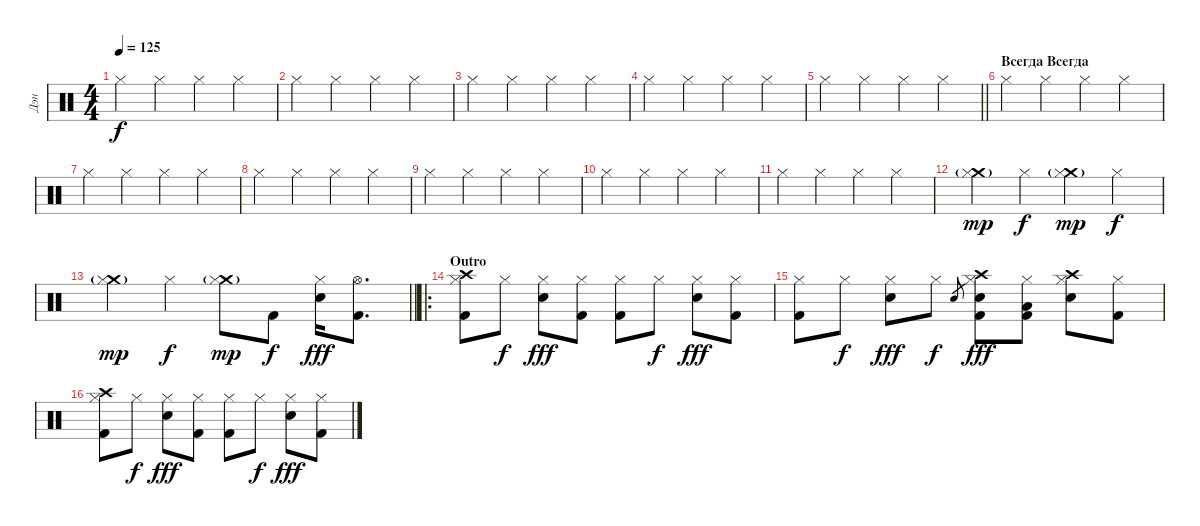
\track ("Дэн" "Дэн") {instrument percussion}
\staff {score}
\articulation defaults
\ts (4 4)
\tempo 125
\clef neutral
\ks c "Hi-Hat (closed)".4{dy f} "Hi-Hat (closed)".4 "Hi-Hat (closed)".4 "Hi-Hat (closed)".4
|
"Hi-Hat (closed)".4 "Hi-Hat (closed)".4 "Hi-Hat (closed)".4 "Hi-Hat (closed)".4 |
"Hi-Hat (closed)".4 "Hi-Hat (closed)".4 "Hi-Hat (closed)".4 "Hi-Hat (closed)".4 |
"Hi-Hat (closed)".4 "Hi-Hat (closed)".4 "Hi-Hat (closed)".4 "Hi-Hat (closed)".4 |
\barLineRight lightlight "Hi-Hat (closed)".4 "Hi-Hat (closed)".4 "Hi-Hat (closed)".4 "Hi-Hat (closed)".4
|
\section ("" "Всегда Всегда")
"Hi-Hat (closed)".4 "Hi-Hat (closed)".4 "Hi-Hat (closed)".4 "Hi-Hat (closed)".4 |
"Hi-Hat (closed)".4 "Hi-Hat (closed)".4 "Hi-Hat (closed)".4 "Hi-Hat (closed)".4 |
"Hi-Hat (closed)".4 "Hi-Hat (closed)".4 "Hi-Hat (closed)".4 "Hi-Hat (closed)".4 |
"Hi-Hat (closed)".4 "Hi-Hat (closed)".4 "Hi-Hat (closed)".4 "Hi-Hat (closed)".4 |
"Hi-Hat (closed)".4 "Hi-Hat (closed)".4 "Hi-Hat (closed)".4 "Hi-Hat (closed)".4 |
"Hi-Hat (closed)".4 "Hi-Hat (closed)".4 "Hi-Hat (closed)".4 "Hi-Hat (closed)".4 |
("Crash medium (hit)"{g} "Hi-Hat (closed)").4{dy mp} "Hi-Hat (closed)".4{dy f} ("Crash medium (hit)"{g} "Hi-Hat (closed)").4{dy mp} "Hi-Hat (closed)".4{dy f} |
\barLineRight lightlight
("Crash medium (hit)"{g} "Hi-Hat (closed)").4{dy mp} "Hi-Hat (closed)".4{dy f} ("Crash medium (hit)"{g} "Hi-Hat (closed)").8{dy mp} "Kick (hit) 2".8{dy f} ("Hi-Hat (closed)" "Electric Snare (hit)").16{dy fff} ("Hi-Hat (open)" "Kick (hit) 2").8{d} |
\ro
\section ("" "Outro")
("Crash high (hit)" "Hi-Hat (closed)" "Kick (hit) 2").8 "Hi-Hat (closed)".8{dy f} ("Hi-Hat (closed)" "Electric Snare (hit)").8{dy fff} ("Hi-Hat (closed)" "Kick (hit) 2").8 ("Hi-Hat (closed)" "Kick (hit) 2").8 "Hi-Hat (closed)".8{dy f} ("Hi-Hat (closed)" "Electric Snare (hit)").8{dy fff} ("Hi-Hat (closed)" "Kick (hit) 2").8 |
("Hi-Hat (closed)" "Kick (hit) 2").8 "Hi-Hat (closed)".8{dy f} ("Hi-Hat (closed)" "Electric Snare (hit)").8{dy fff} "Hi-Hat (closed)".8{dy f} "Electric Snare (hit)".8{gr} ("Crash high (hit)" "Hi-Hat (closed)" "Electric Snare (hit)" "Kick (hit) 2").8{dy fff} ("Hi-Hat (closed)" "Low Tom (hit)" "Kick (hit) 2").8 ("Crash high (hit)" "Hi-Hat (closed)" "Electric Snare (hit)").8 ("Hi-Hat (closed)" "Kick (hit) 2").8 |
("Crash high (hit)" "Hi-Hat (closed)" "Kick (hit) 2").8 "Hi-Hat (closed)".8{dy f} ("Hi-Hat (closed)" "Electric Snare (hit)").8{dy fff} ("Hi-Hat (closed)" "Kick (hit) 2").8 ("Hi-Hat (closed)" "Kick (hit) 2").8 "Hi-Hat (closed)".8{dy f} ("Hi-Hat (closed)" "Electric Snare (hit)").8{dy fff} ("Hi-Hat (closed)" "Kick (hit) 2").8
